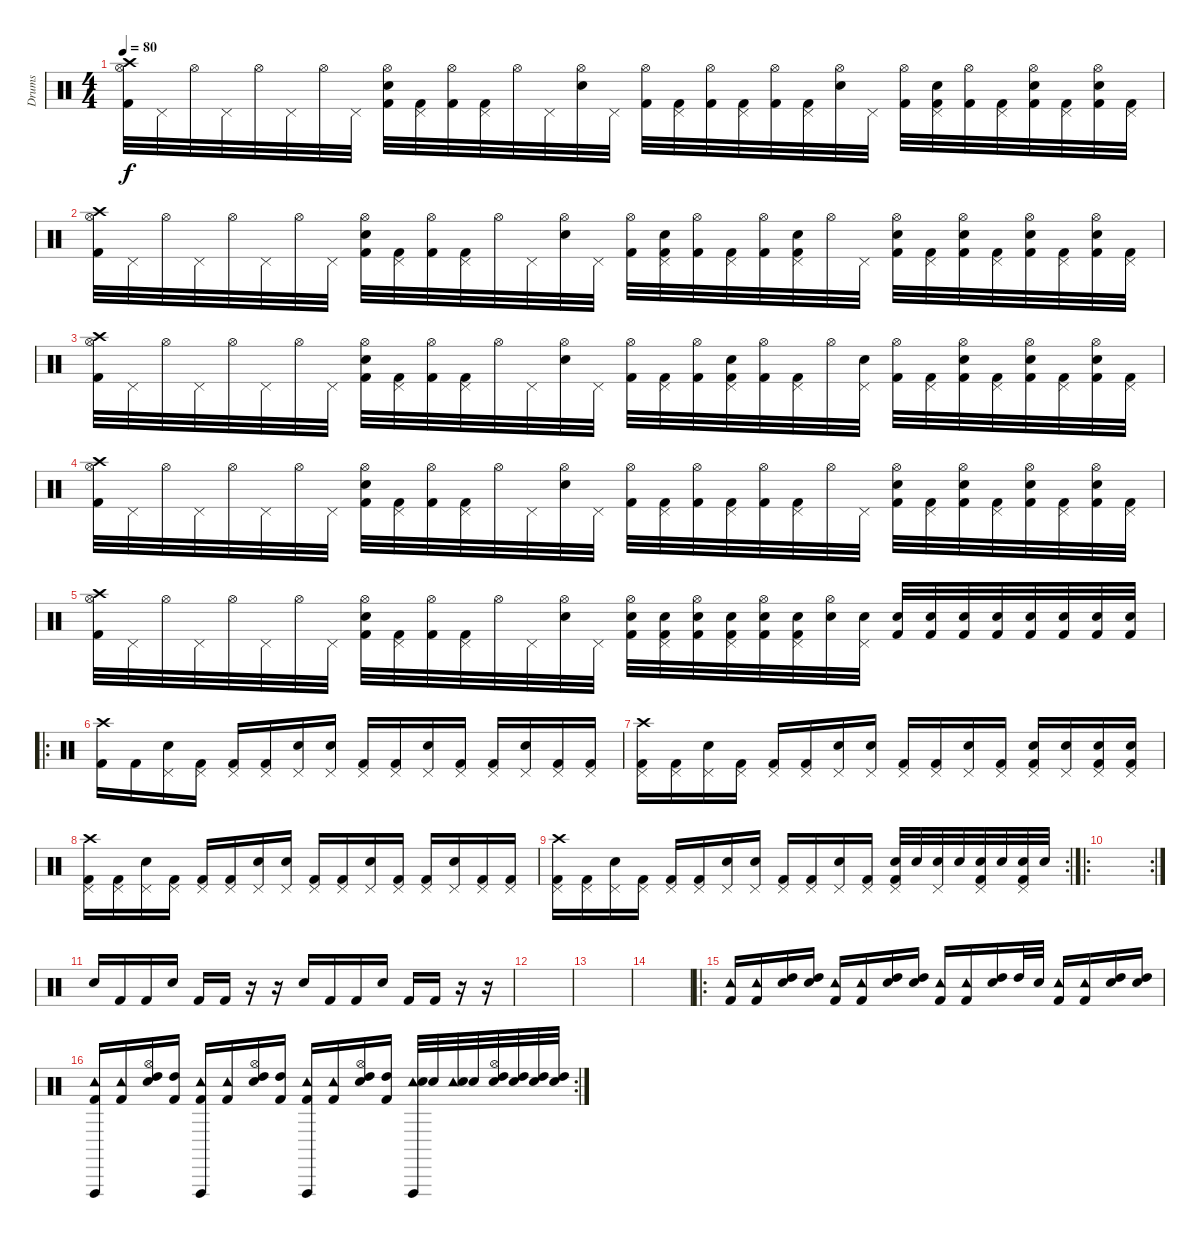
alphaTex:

\track ("Drums" "Drums") {instrument percussion}
\staff {score}
\articulation defaults
\ts (4 4)
\tempo 80
\clef neutral
\ks c
("Crash high (hit)" "Hi-Hat (open)" "Kick (hit) 2").32{dy f} "Pedal Hi-Hat (hit)".32 "Hi-Hat (open)".32 "Pedal Hi-Hat (hit)".32 "Hi-Hat (open)".32 "Pedal Hi-Hat (hit)".32 "Hi-Hat (open)".32 "Pedal Hi-Hat (hit)".32 ("Hi-Hat (open)" "Electric Snare (hit)" "Kick (hit) 2").32 ("Pedal Hi-Hat (hit)" "Kick (hit) 2").32 ("Hi-Hat (open)" "Kick (hit) 2").32 ("Pedal Hi-Hat (hit)" "Kick (hit) 2").32 "Hi-Hat (open)".32 "Pedal Hi-Hat (hit)".32 ("Hi-Hat (open)" "Electric Snare (hit)").32 "Pedal Hi-Hat (hit)".32 ("Hi-Hat (open)" "Kick (hit) 2").32 ("Pedal Hi-Hat (hit)" "Kick (hit) 2").32 ("Hi-Hat (open)" "Kick (hit) 2").32 ("Pedal Hi-Hat (hit)" "Kick (hit) 2").32 ("Hi-Hat (open)" "Kick (hit) 2").32 ("Pedal Hi-Hat (hit)" "Kick (hit) 2").32 ("Hi-Hat (open)" "Electric Snare (hit)").32 "Pedal Hi-Hat (hit)".32 ("Hi-Hat (open)" "Kick (hit) 2").32 ("Pedal Hi-Hat (hit)" "Electric Snare (hit)" "Kick (hit) 2").32 ("Hi-Hat (open)" "Kick (hit) 2").32 ("Pedal Hi-Hat (hit)" "Kick (hit) 2").32 ("Hi-Hat (open)" "Electric Snare (hit)" "Kick (hit) 2").32 ("Pedal Hi-Hat (hit)" "Kick (hit) 2").32 ("Hi-Hat (open)" "Electric Snare (hit)" "Kick (hit) 2").32 ("Pedal Hi-Hat (hit)" "Kick (hit) 2").32 |
("Crash high (hit)" "Hi-Hat (open)" "Kick (hit) 2").32 "Pedal Hi-Hat (hit)".32 "Hi-Hat (open)".32 "Pedal Hi-Hat (hit)".32 "Hi-Hat (open)".32 "Pedal Hi-Hat (hit)".32 "Hi-Hat (open)".32 "Pedal Hi-Hat (hit)".32 ("Hi-Hat (open)" "Electric Snare (hit)" "Kick (hit) 2").32 ("Pedal Hi-Hat (hit)" "Kick (hit) 2").32 ("Hi-Hat (open)" "Kick (hit) 2").32 ("Pedal Hi-Hat (hit)" "Kick (hit) 2").32 "Hi-Hat (open)".32 "Pedal Hi-Hat (hit)".32 ("Hi-Hat (open)" "Electric Snare (hit)").32 "Pedal Hi-Hat (hit)".32 ("Hi-Hat (open)" "Kick (hit) 2").32 ("Pedal Hi-Hat (hit)" "Electric Snare (hit)" "Kick (hit) 2").32 ("Hi-Hat (open)" "Kick (hit) 2").32 ("Pedal Hi-Hat (hit)" "Kick (hit) 2").32 ("Hi-Hat (open)" "Kick (hit) 2").32 ("Pedal Hi-Hat (hit)" "Electric Snare (hit)" "Kick (hit) 2").32 "Hi-Hat (open)".32 "Pedal Hi-Hat (hit)".32 ("Hi-Hat (open)" "Electric Snare (hit)" "Kick (hit) 2").32 ("Pedal Hi-Hat (hit)" "Kick (hit) 2").32 ("Hi-Hat (open)" "Electric Snare (hit)" "Kick (hit) 2").32 ("Pedal Hi-Hat (hit)" "Kick (hit) 2").32 ("Hi-Hat (open)" "Electric Snare (hit)" "Kick (hit) 2").32 ("Pedal Hi-Hat (hit)" "Kick (hit) 2").32 ("Hi-Hat (open)" "Electric Snare (hit)" "Kick (hit) 2").32 ("Pedal Hi-Hat (hit)" "Kick (hit) 2").32 |
("Crash high (hit)" "Hi-Hat (open)" "Kick (hit) 2").32 "Pedal Hi-Hat (hit)".32 "Hi-Hat (open)".32 "Pedal Hi-Hat (hit)".32 "Hi-Hat (open)".32 "Pedal Hi-Hat (hit)".32 "Hi-Hat (open)".32 "Pedal Hi-Hat (hit)".32 ("Hi-Hat (open)" "Electric Snare (hit)" "Kick (hit) 2").32 ("Pedal Hi-Hat (hit)" "Kick (hit) 2").32 ("Hi-Hat (open)" "Kick (hit) 2").32 ("Pedal Hi-Hat (hit)" "Kick (hit) 2").32 "Hi-Hat (open)".32 "Pedal Hi-Hat (hit)".32 ("Hi-Hat (open)" "Electric Snare (hit)").32 "Pedal Hi-Hat (hit)".32 ("Hi-Hat (open)" "Kick (hit) 2").32 ("Pedal Hi-Hat (hit)" "Kick (hit) 2").32 ("Hi-Hat (open)" "Kick (hit) 2").32 ("Pedal Hi-Hat (hit)" "Electric Snare (hit)" "Kick (hit) 2").32 ("Hi-Hat (open)" "Kick (hit) 2").32 ("Pedal Hi-Hat (hit)" "Kick (hit) 2").32 "Hi-Hat (open)".32 ("Pedal Hi-Hat (hit)" "Electric Snare (hit)").32 ("Hi-Hat (open)" "Kick (hit) 2").32 ("Pedal Hi-Hat (hit)" "Kick (hit) 2").32 ("Hi-Hat (open)" "Electric Snare (hit)" "Kick (hit) 2").32 ("Pedal Hi-Hat (hit)" "Kick (hit) 2").32 ("Hi-Hat (open)" "Electric Snare (hit)" "Kick (hit) 2").32 ("Pedal Hi-Hat (hit)" "Kick (hit) 2").32 ("Hi-Hat (open)" "Electric Snare (hit)" "Kick (hit) 2").32 ("Pedal Hi-Hat (hit)" "Kick (hit) 2").32 |
("Crash high (hit)" "Hi-Hat (open)" "Kick (hit) 2").32 "Pedal Hi-Hat (hit)".32 "Hi-Hat (open)".32 "Pedal Hi-Hat (hit)".32 "Hi-Hat (open)".32 "Pedal Hi-Hat (hit)".32 "Hi-Hat (open)".32 "Pedal Hi-Hat (hit)".32 ("Hi-Hat (open)" "Electric Snare (hit)" "Kick (hit) 2").32 ("Pedal Hi-Hat (hit)" "Kick (hit) 2").32 ("Hi-Hat (open)" "Kick (hit) 2").32 ("Pedal Hi-Hat (hit)" "Kick (hit) 2").32 "Hi-Hat (open)".32 "Pedal Hi-Hat (hit)".32 ("Hi-Hat (open)" "Electric Snare (hit)").32 "Pedal Hi-Hat (hit)".32 ("Hi-Hat (open)" "Kick (hit) 2").32 ("Pedal Hi-Hat (hit)" "Kick (hit) 2").32 ("Hi-Hat (open)" "Kick (hit) 2").32 ("Pedal Hi-Hat (hit)" "Kick (hit) 2").32 ("Hi-Hat (open)" "Kick (hit) 2").32 ("Pedal Hi-Hat (hit)" "Kick (hit) 2").32 "Hi-Hat (open)".32 "Pedal Hi-Hat (hit)".32 ("Hi-Hat (open)" "Electric Snare (hit)" "Kick (hit) 2").32 ("Pedal Hi-Hat (hit)" "Kick (hit) 2").32 ("Hi-Hat (open)" "Electric Snare (hit)" "Kick (hit) 2").32 ("Pedal Hi-Hat (hit)" "Kick (hit) 2").32 ("Hi-Hat (open)" "Electric Snare (hit)" "Kick (hit) 2").32 ("Pedal Hi-Hat (hit)" "Kick (hit) 2").32 ("Hi-Hat (open)" "Electric Snare (hit)" "Kick (hit) 2").32 ("Pedal Hi-Hat (hit)" "Kick (hit) 2").32 |
("Crash high (hit)" "Hi-Hat (open)" "Kick (hit) 2").32 "Pedal Hi-Hat (hit)".32 "Hi-Hat (open)".32 "Pedal Hi-Hat (hit)".32 "Hi-Hat (open)".32 "Pedal Hi-Hat (hit)".32 "Hi-Hat (open)".32 "Pedal Hi-Hat (hit)".32 ("Hi-Hat (open)" "Electric Snare (hit)" "Kick (hit) 2").32 ("Pedal Hi-Hat (hit)" "Kick (hit) 2").32 ("Hi-Hat (open)" "Kick (hit) 2").32 ("Pedal Hi-Hat (hit)" "Kick (hit) 2").32 "Hi-Hat (open)".32 "Pedal Hi-Hat (hit)".32 ("Hi-Hat (open)" "Electric Snare (hit)").32 "Pedal Hi-Hat (hit)".32 ("Hi-Hat (open)" "Electric Snare (hit)" "Kick (hit) 2").32 ("Pedal Hi-Hat (hit)" "Electric Snare (hit)" "Kick (hit) 2").32 ("Hi-Hat (open)" "Electric Snare (hit)" "Kick (hit) 2").32 ("Pedal Hi-Hat (hit)" "Electric Snare (hit)" "Kick (hit) 2").32 ("Hi-Hat (open)" "Electric Snare (hit)" "Kick (hit) 2").32 ("Pedal Hi-Hat (hit)" "Electric Snare (hit)" "Kick (hit) 2").32 ("Hi-Hat (open)" "Electric Snare (hit)").32 ("Pedal Hi-Hat (hit)" "Electric Snare (hit)").32 ("Electric Snare (hit)" "Kick (hit) 2").32 ("Electric Snare (hit)" "Kick (hit) 2").32 ("Electric Snare (hit)" "Kick (hit) 2").32 ("Electric Snare (hit)" "Kick (hit) 2").32 ("Electric Snare (hit)" "Kick (hit) 2").32 ("Electric Snare (hit)" "Kick (hit) 2").32 ("Electric Snare (hit)" "Kick (hit) 2").32 ("Electric Snare (hit)" "Kick (hit) 2").32 |
\ro
("Crash high (hit)" "Kick (hit) 2").16 "Kick (hit) 2".16 ("Pedal Hi-Hat (hit)" "Electric Snare (hit)").16 ("Pedal Hi-Hat (hit)" "Kick (hit) 2").16 ("Pedal Hi-Hat (hit)" "Kick (hit) 2").16 ("Pedal Hi-Hat (hit)" "Kick (hit) 2").16 ("Pedal Hi-Hat (hit)" "Electric Snare (hit)").16 ("Pedal Hi-Hat (hit)" "Electric Snare (hit)").16 ("Pedal Hi-Hat (hit)" "Kick (hit) 2").16 ("Pedal Hi-Hat (hit)" "Kick (hit) 2").16 ("Pedal Hi-Hat (hit)" "Electric Snare (hit)").16 ("Pedal Hi-Hat (hit)" "Kick (hit) 2").16 ("Pedal Hi-Hat (hit)" "Kick (hit) 2").16 ("Pedal Hi-Hat (hit)" "Electric Snare (hit)").16 ("Pedal Hi-Hat (hit)" "Kick (hit) 2").16 ("Pedal Hi-Hat (hit)" "Kick (hit) 2").16 |
("Crash high (hit)" "Pedal Hi-Hat (hit)" "Kick (hit) 2").16 ("Pedal Hi-Hat (hit)" "Kick (hit) 2").16 ("Pedal Hi-Hat (hit)" "Electric Snare (hit)").16 ("Pedal Hi-Hat (hit)" "Kick (hit) 2").16 ("Pedal Hi-Hat (hit)" "Kick (hit) 2").16 ("Pedal Hi-Hat (hit)" "Kick (hit) 2").16 ("Pedal Hi-Hat (hit)" "Electric Snare (hit)").16 ("Pedal Hi-Hat (hit)" "Electric Snare (hit)").16 ("Pedal Hi-Hat (hit)" "Kick (hit) 2").16 ("Pedal Hi-Hat (hit)" "Kick (hit) 2").16 ("Pedal Hi-Hat (hit)" "Electric Snare (hit)").16 ("Pedal Hi-Hat (hit)" "Kick (hit) 2").16 ("Pedal Hi-Hat (hit)" "Electric Snare (hit)" "Kick (hit) 2").16 ("Pedal Hi-Hat (hit)" "Electric Snare (hit)").16 ("Pedal Hi-Hat (hit)" "Electric Snare (hit)" "Kick (hit) 2").16 ("Pedal Hi-Hat (hit)" "Electric Snare (hit)" "Kick (hit) 2").16 |
("Crash high (hit)" "Pedal Hi-Hat (hit)" "Kick (hit) 2").16 ("Pedal Hi-Hat (hit)" "Kick (hit) 2").16 ("Pedal Hi-Hat (hit)" "Electric Snare (hit)").16 ("Pedal Hi-Hat (hit)" "Kick (hit) 2").16 ("Pedal Hi-Hat (hit)" "Kick (hit) 2").16 ("Pedal Hi-Hat (hit)" "Kick (hit) 2").16 ("Pedal Hi-Hat (hit)" "Electric Snare (hit)").16 ("Pedal Hi-Hat (hit)" "Electric Snare (hit)").16 ("Pedal Hi-Hat (hit)" "Kick (hit) 2").16 ("Pedal Hi-Hat (hit)" "Kick (hit) 2").16 ("Pedal Hi-Hat (hit)" "Electric Snare (hit)").16 ("Pedal Hi-Hat (hit)" "Kick (hit) 2").16 ("Pedal Hi-Hat (hit)" "Kick (hit) 2").16 ("Pedal Hi-Hat (hit)" "Electric Snare (hit)").16 ("Pedal Hi-Hat (hit)" "Kick (hit) 2").16 ("Pedal Hi-Hat (hit)" "Kick (hit) 2").16 |
\rc 2
("Crash high (hit)" "Pedal Hi-Hat (hit)" "Kick (hit) 2").16 ("Pedal Hi-Hat (hit)" "Kick (hit) 2").16 ("Pedal Hi-Hat (hit)" "Electric Snare (hit)").16 ("Pedal Hi-Hat (hit)" "Kick (hit) 2").16 ("Pedal Hi-Hat (hit)" "Kick (hit) 2").16 ("Pedal Hi-Hat (hit)" "Kick (hit) 2").16 ("Pedal Hi-Hat (hit)" "Electric Snare (hit)").16 ("Pedal Hi-Hat (hit)" "Electric Snare (hit)").16 ("Pedal Hi-Hat (hit)" "Kick (hit) 2").16 ("Pedal Hi-Hat (hit)" "Kick (hit) 2").16 ("Pedal Hi-Hat (hit)" "Electric Snare (hit)").16 ("Pedal Hi-Hat (hit)" "Kick (hit) 2").16 ("Pedal Hi-Hat (hit)" "Electric Snare (hit)" "Kick (hit) 2").32 "Electric Snare (hit)".32 ("Pedal Hi-Hat (hit)" "Electric Snare (hit)").32 "Electric Snare (hit)".32 ("Pedal Hi-Hat (hit)" "Electric Snare (hit)" "Kick (hit) 2").32 "Electric Snare (hit)".32 ("Pedal Hi-Hat (hit)" "Electric Snare (hit)" "Kick (hit) 2").32 "Electric Snare (hit)".32 |
\ro
\rc 2
|
"Electric Snare (hit)".16 "Kick (hit) 2".16 "Kick (hit) 2".16 "Electric Snare (hit)".16 "Kick (hit) 2".16 "Kick (hit) 2".16 r.16 r.16 "Electric Snare (hit)".16 "Kick (hit) 2".16 "Kick (hit) 2".16 "Electric Snare (hit)".16 "Kick (hit) 2".16 "Kick (hit) 2".16 r.16 r.16 |
|
|
|
\ro
("Tambourine (hit)" "Kick (hit) 2").16 ("Tambourine (hit)" "Kick (hit) 2").16 ("High Tom (hit)" "Electric Snare (hit)").16 ("High Tom (hit)" "Electric Snare (hit)").16 ("Tambourine (hit)" "Kick (hit) 2").16 ("Tambourine (hit)" "Kick (hit) 2").16 ("High Tom (hit)" "Electric Snare (hit)").16 ("High Tom (hit)" "Electric Snare (hit)").16 ("Tambourine (hit)" "Kick (hit) 2").16 ("Tambourine (hit)" "Kick (hit) 2").16 ("High Tom (hit)" "Electric Snare (hit)").16 "High Tom (hit)".32 "Electric Snare (hit)".32 ("Tambourine (hit)" "Kick (hit) 2").16 ("Tambourine (hit)" "Kick (hit) 2").16 ("High Tom (hit)" "Electric Snare (hit)").16 ("High Tom (hit)" "Electric Snare (hit)").16 |
\rc 2
("Tambourine (hit)" "Vibraslap (hit)" "Kick (hit) 2").16 ("Tambourine (hit)" "Kick (hit) 2").16 ("Hi-Hat (open)" "Electric Snare (hit)" "High Tom (hit)").16 ("High Tom (hit)" "Kick (hit) 2").16 ("Tambourine (hit)" "Vibraslap (hit)" "Kick (hit) 2").16 ("Tambourine (hit)" "Kick (hit) 2").16 ("Hi-Hat (open)" "Electric Snare (hit)" "High Tom (hit)").16 ("High Tom (hit)" "Kick (hit) 2").16 ("Tambourine (hit)" "Vibraslap (hit)" "Kick (hit) 2").16 ("Tambourine (hit)" "Kick (hit) 2").16 ("Hi-Hat (open)" "Electric Snare (hit)" "High Tom (hit)").16 ("High Tom (hit)" "Kick (hit) 2").16 ("Tambourine (hit)" "Electric Snare (hit)" "Vibraslap (hit)").32 "Electric Snare (hit)".32 ("Tambourine (hit)" "Electric Snare (hit)").32 "Electric Snare (hit)".32 ("Hi-Hat (open)" "Electric Snare (hit)" "High Tom (hit)").32 ("Electric Snare (hit)" "High Tom (hit)").32 ("Electric Snare (hit)" "High Tom (hit)").32 ("Electric Snare (hit)" "High Tom (hit)").32
